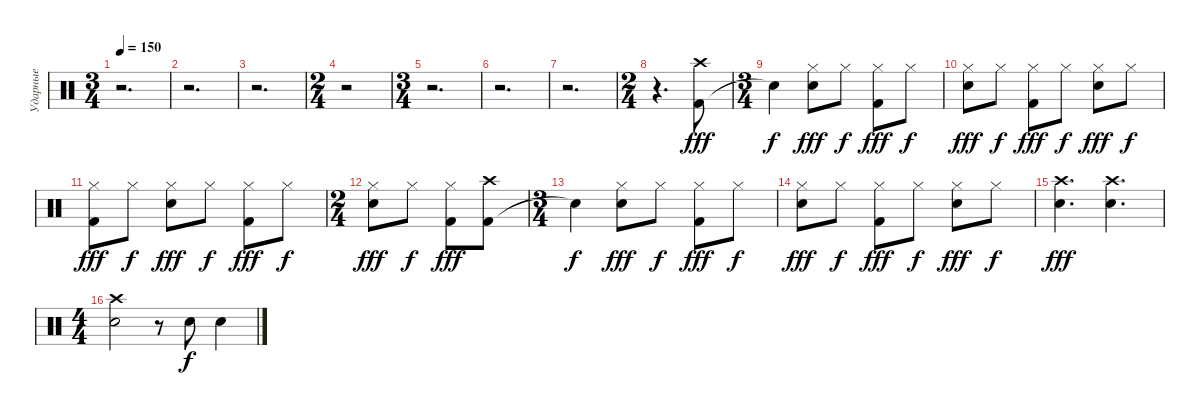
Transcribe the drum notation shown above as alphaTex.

\track ("Ударные" "Ударные") {instrument percussion}
\staff {score}
\articulation defaults
\ts (3 4)
\tempo 150
\clef neutral
\ks c
r.2{d dy fff} |
r.2{d} |
r.2{d} |
\ts (2 4)
r.2 |
\ts (3 4)
r.2{d} |
r.2{d} |
r.2{d} |
\ts (2 4)
r.4{d} ("Kick (hit) 2" "Crash high (hit)").8 |
\ts (3 4)
"Snare (hit)"{t}.4{dy f} ("Snare (hit) 2" "Hi-Hat (closed)").8{dy fff} "Hi-Hat (closed)".8{dy f} ("Kick (hit) 2" "Hi-Hat (closed)").8{dy fff} "Hi-Hat (closed)".8{dy f} |
("Snare (hit) 2" "Hi-Hat (closed)").8{dy fff} "Hi-Hat (closed)".8{dy f} ("Kick (hit) 2" "Hi-Hat (closed)").8{dy fff} "Hi-Hat (closed)".8{dy f} ("Snare (hit) 2" "Hi-Hat (closed)").8{dy fff} "Hi-Hat (closed)".8{dy f} |
("Kick (hit) 2" "Hi-Hat (closed)").8{dy fff} "Hi-Hat (closed)".8{dy f} ("Snare (hit) 2" "Hi-Hat (closed)").8{dy fff} "Hi-Hat (closed)".8{dy f} ("Kick (hit) 2" "Hi-Hat (closed)").8{dy fff} "Hi-Hat (closed)".8{dy f} |
\ts (2 4)
("Snare (hit) 2" "Hi-Hat (closed)").8{dy fff} "Hi-Hat (closed)".8{dy f} ("Kick (hit) 2" "Hi-Hat (closed)").8{dy fff} ("Kick (hit) 2" "Crash high (hit)").8 |
\ts (3 4)
"Snare (hit)"{t}.4{dy f} ("Snare (hit) 2" "Hi-Hat (closed)").8{dy fff} "Hi-Hat (closed)".8{dy f} ("Kick (hit) 2" "Hi-Hat (closed)").8{dy fff} "Hi-Hat (closed)".8{dy f} |
("Snare (hit) 2" "Hi-Hat (closed)").8{dy fff} "Hi-Hat (closed)".8{dy f} ("Kick (hit) 2" "Hi-Hat (closed)").8{dy fff} "Hi-Hat (closed)".8{dy f} ("Snare (hit) 2" "Hi-Hat (closed)").8{dy fff} "Hi-Hat (closed)".8{dy f} |
("Snare (hit) 2" "Crash high (hit)").4{d dy fff} ("Snare (hit) 2" "Crash high (hit)").4{d} |
\ts (4 4)
("Snare (hit) 2" "Crash high (hit)").2 r.8 "Snare (hit) 2".8{dy f} "Snare (hit) 2".4
